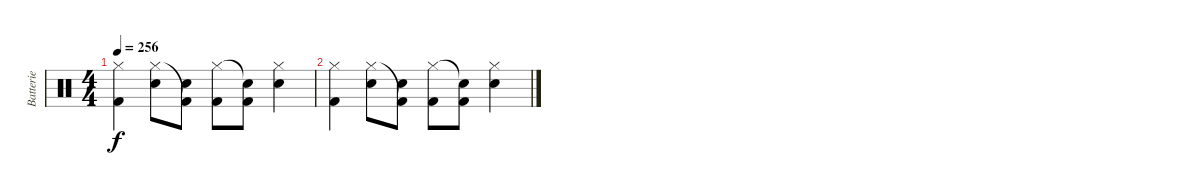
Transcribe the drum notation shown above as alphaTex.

\track ("Batterie" "Batterie") {instrument percussion}
\staff {score}
\articulation defaults
\ts (4 4)
\tempo 256
\clef neutral
\ks c
("Hi-Hat (closed)" "Kick (hit) 2").4{dy f} ("Hi-Hat (closed)" "Snare (hit) 2").8 ("Kick (hit) 2"{t} "Snare (hit) 2").8 ("Hi-Hat (closed)" "Kick (hit) 2").8 ("Snare (hit)"{t} "Kick (hit) 2").8 ("Hi-Hat (closed)" "Snare (hit) 2").4 |
("Hi-Hat (closed)" "Kick (hit) 2").4 ("Hi-Hat (closed)" "Snare (hit) 2").8 ("Kick (hit) 2"{t} "Snare (hit) 2").8 ("Hi-Hat (closed)" "Kick (hit) 2").8 ("Snare (hit)"{t} "Kick (hit) 2").8 ("Hi-Hat (closed)" "Snare (hit) 2").4
